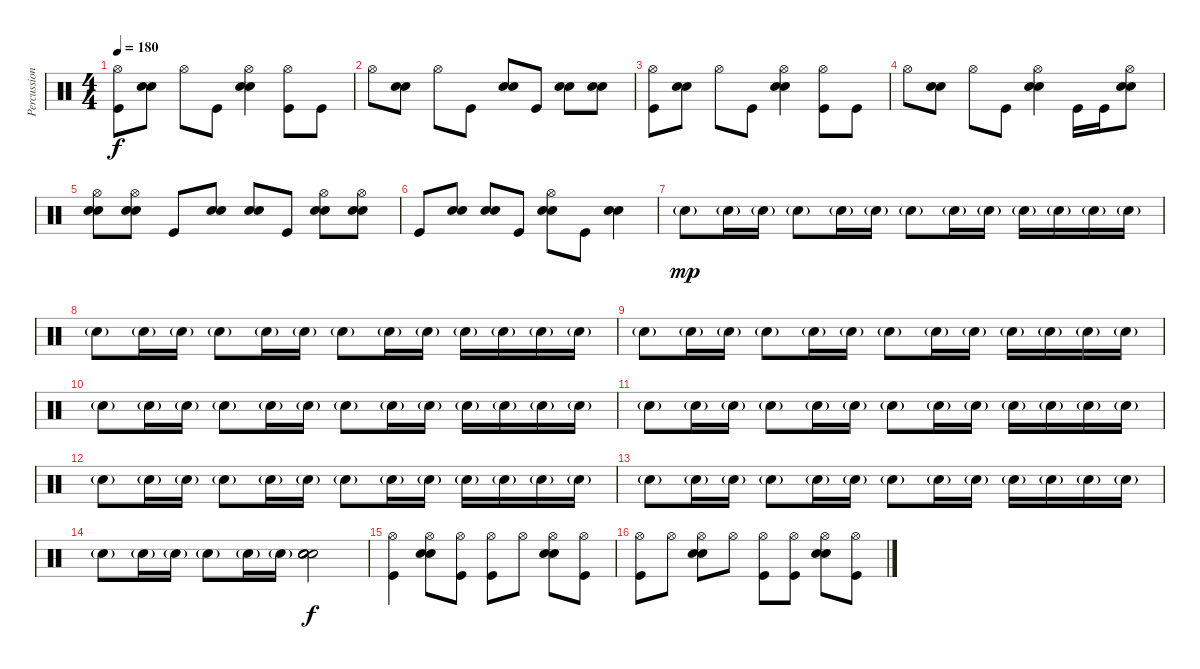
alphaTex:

\track ("Percussion" "Percussion") {instrument percussion}
\staff {score}
\articulation defaults
\ts (4 4)
\tempo 180
\clef neutral
\ks c
("Hi-Hat (open)" "Kick (hit)").8{dy f} ("Snare (hit) 2" "Electric Snare (hit)").8 "Hi-Hat (open)".8 "Kick (hit)".8 ("Hi-Hat (open)" "Snare (hit) 2" "Electric Snare (hit)").4 ("Hi-Hat (open)" "Kick (hit)").8 "Kick (hit)".8 |
"Hi-Hat (open)".8 ("Snare (hit) 2" "Electric Snare (hit)").8 "Hi-Hat (open)".8 "Kick (hit)".8 ("Snare (hit) 2" "Electric Snare (hit)").8 "Kick (hit)".8 ("Snare (hit) 2" "Electric Snare (hit)").8 ("Snare (hit) 2" "Electric Snare (hit)").8 |
("Hi-Hat (open)" "Kick (hit)").8 ("Snare (hit) 2" "Electric Snare (hit)").8 "Hi-Hat (open)".8 "Kick (hit)".8 ("Hi-Hat (open)" "Snare (hit) 2" "Electric Snare (hit)").4 ("Hi-Hat (open)" "Kick (hit)").8 "Kick (hit)".8 |
"Hi-Hat (open)".8 ("Snare (hit) 2" "Electric Snare (hit)").8 "Hi-Hat (open)".8 "Kick (hit)".8 ("Hi-Hat (open)" "Snare (hit) 2" "Electric Snare (hit)").4 "Kick (hit)".16 "Kick (hit)".16 ("Hi-Hat (open)" "Snare (hit) 2" "Electric Snare (hit)").8 |
("Hi-Hat (open)" "Snare (hit) 2" "Electric Snare (hit)").8 ("Hi-Hat (open)" "Snare (hit) 2" "Electric Snare (hit)").8 "Kick (hit)".8 ("Snare (hit) 2" "Electric Snare (hit)").8 ("Snare (hit) 2" "Electric Snare (hit)").8 "Kick (hit)".8 ("Hi-Hat (open)" "Snare (hit) 2" "Electric Snare (hit)").8 ("Hi-Hat (open)" "Snare (hit) 2" "Electric Snare (hit)").8 |
"Kick (hit)".8 ("Snare (hit) 2" "Electric Snare (hit)").8 ("Snare (hit) 2" "Electric Snare (hit)").8 "Kick (hit)".8 ("Hi-Hat (open)" "Snare (hit) 2" "Electric Snare (hit)").8 "Kick (hit)".8 ("Snare (hit) 2" "Electric Snare (hit)").4 |
"Snare (hit) 2"{g}.8{dy mp} "Snare (hit) 2"{g}.16 "Snare (hit) 2"{g}.16 "Snare (hit) 2"{g}.8 "Snare (hit) 2"{g}.16 "Snare (hit) 2"{g}.16 "Snare (hit) 2"{g}.8 "Snare (hit) 2"{g}.16 "Snare (hit) 2"{g}.16 "Snare (hit) 2"{g}.16 "Snare (hit) 2"{g}.16 "Snare (hit) 2"{g}.16 "Snare (hit) 2"{g}.16 |
"Snare (hit) 2"{g}.8 "Snare (hit) 2"{g}.16 "Snare (hit) 2"{g}.16 "Snare (hit) 2"{g}.8 "Snare (hit) 2"{g}.16 "Snare (hit) 2"{g}.16 "Snare (hit) 2"{g}.8 "Snare (hit) 2"{g}.16 "Snare (hit) 2"{g}.16 "Snare (hit) 2"{g}.16 "Snare (hit) 2"{g}.16 "Snare (hit) 2"{g}.16 "Snare (hit) 2"{g}.16 |
"Snare (hit) 2"{g}.8 "Snare (hit) 2"{g}.16 "Snare (hit) 2"{g}.16 "Snare (hit) 2"{g}.8 "Snare (hit) 2"{g}.16 "Snare (hit) 2"{g}.16 "Snare (hit) 2"{g}.8 "Snare (hit) 2"{g}.16 "Snare (hit) 2"{g}.16 "Snare (hit) 2"{g}.16 "Snare (hit) 2"{g}.16 "Snare (hit) 2"{g}.16 "Snare (hit) 2"{g}.16 |
"Snare (hit) 2"{g}.8 "Snare (hit) 2"{g}.16 "Snare (hit) 2"{g}.16 "Snare (hit) 2"{g}.8 "Snare (hit) 2"{g}.16 "Snare (hit) 2"{g}.16 "Snare (hit) 2"{g}.8 "Snare (hit) 2"{g}.16 "Snare (hit) 2"{g}.16 "Snare (hit) 2"{g}.16 "Snare (hit) 2"{g}.16 "Snare (hit) 2"{g}.16 "Snare (hit) 2"{g}.16 |
"Snare (hit) 2"{g}.8 "Snare (hit) 2"{g}.16 "Snare (hit) 2"{g}.16 "Snare (hit) 2"{g}.8 "Snare (hit) 2"{g}.16 "Snare (hit) 2"{g}.16 "Snare (hit) 2"{g}.8 "Snare (hit) 2"{g}.16 "Snare (hit) 2"{g}.16 "Snare (hit) 2"{g}.16 "Snare (hit) 2"{g}.16 "Snare (hit) 2"{g}.16 "Snare (hit) 2"{g}.16 |
"Snare (hit) 2"{g}.8 "Snare (hit) 2"{g}.16 "Snare (hit) 2"{g}.16 "Snare (hit) 2"{g}.8 "Snare (hit) 2"{g}.16 "Snare (hit) 2"{g}.16 "Snare (hit) 2"{g}.8 "Snare (hit) 2"{g}.16 "Snare (hit) 2"{g}.16 "Snare (hit) 2"{g}.16 "Snare (hit) 2"{g}.16 "Snare (hit) 2"{g}.16 "Snare (hit) 2"{g}.16 |
"Snare (hit) 2"{g}.8 "Snare (hit) 2"{g}.16 "Snare (hit) 2"{g}.16 "Snare (hit) 2"{g}.8 "Snare (hit) 2"{g}.16 "Snare (hit) 2"{g}.16 "Snare (hit) 2"{g}.8 "Snare (hit) 2"{g}.16 "Snare (hit) 2"{g}.16 "Snare (hit) 2"{g}.16 "Snare (hit) 2"{g}.16 "Snare (hit) 2"{g}.16 "Snare (hit) 2"{g}.16 |
"Snare (hit) 2"{g}.8 "Snare (hit) 2"{g}.16 "Snare (hit) 2"{g}.16 "Snare (hit) 2"{g}.8 "Snare (hit) 2"{g}.16 "Snare (hit) 2"{g}.16 ("Electric Snare (hit)" "Electric Snare (hit)" "Snare (hit) 2" "Snare (hit) 2" "Electric Snare (hit)" "Snare (hit) 2").2{dy f} |
("Hi-Hat (open)" "Kick (hit)").4 ("Hi-Hat (open)" "Snare (hit) 2" "Electric Snare (hit)").8 ("Hi-Hat (open)" "Kick (hit)").8 ("Hi-Hat (open)" "Kick (hit)").8 "Hi-Hat (open)".8 ("Hi-Hat (open)" "Snare (hit) 2" "Electric Snare (hit)").8 ("Hi-Hat (open)" "Kick (hit)").8 |
("Hi-Hat (open)" "Kick (hit)").8 "Hi-Hat (open)".8 ("Hi-Hat (open)" "Snare (hit) 2" "Electric Snare (hit)").8 "Hi-Hat (open)".8 ("Hi-Hat (open)" "Kick (hit)").8 ("Hi-Hat (open)" "Kick (hit)").8 ("Hi-Hat (open)" "Snare (hit) 2" "Electric Snare (hit)").8 ("Hi-Hat (open)" "Kick (hit)").8
